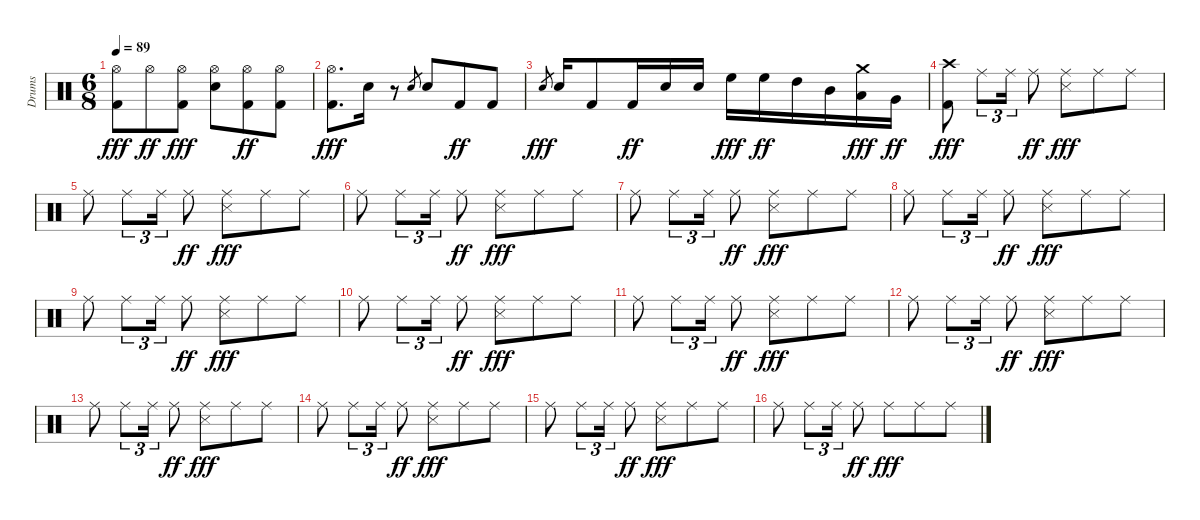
\track ("Drums" "Drums") {instrument percussion}
\staff {score}
\articulation defaults
\ts (6 8)
\tempo 89
\clef neutral
\ks c
("Hi-Hat (open)" "Kick (hit) 2").8{dy fff} "Hi-Hat (open)".8{dy ff} ("Hi-Hat (open)" "Kick (hit) 2").8{dy fff} ("Hi-Hat (open)" "Snare (hit) 2").8 ("Hi-Hat (open)" "Kick (hit) 2").8{dy ff} ("Hi-Hat (open)" "Kick (hit) 2").8 |
("Hi-Hat (open)" "Kick (hit) 2").8{d dy fff} "Snare (hit) 2".16 r.8 "Snare (hit) 2".8{gr} "Snare (hit) 2".8 "Kick (hit) 2".8{dy ff} "Kick (hit) 2".8 |
"Snare (hit) 2".8{gr dy fff} "Snare (hit) 2".16 "Kick (hit) 2".8 "Kick (hit) 2".16{dy ff} "Electric Snare (hit)".16 "Electric Snare (hit)".16 "High Floor Tom (hit)".16{dy fff} "High Floor Tom (hit)".16{dy ff} "High Tom (hit)".16 "Mid Tom (hit)".16 ("Low Tom (hit)" "Crash medium (hit)").16{dy fff} "Very Low Tom (hit)".16{dy ff} |
("Kick (hit) 2" "Crash high (hit)").8{dy fff} "Ride (middle)".8{tu (3 2)} "Ride (middle)".16{tu (3 2)} "Ride (middle)".8{dy ff} ("Ride (middle)" "Snare (side stick) 3").8{dy fff} "Ride (middle)".8 "Ride (middle)".8 |
"Ride (middle)".8 "Ride (middle)".8{tu (3 2)} "Ride (middle)".16{tu (3 2)} "Ride (middle)".8{dy ff} ("Ride (middle)" "Snare (side stick) 3").8{dy fff} "Ride (middle)".8 "Ride (middle)".8 |
"Ride (middle)".8 "Ride (middle)".8{tu (3 2)} "Ride (middle)".16{tu (3 2)} "Ride (middle)".8{dy ff} ("Ride (middle)" "Snare (side stick) 3").8{dy fff} "Ride (middle)".8 "Ride (middle)".8 |
"Ride (middle)".8 "Ride (middle)".8{tu (3 2)} "Ride (middle)".16{tu (3 2)} "Ride (middle)".8{dy ff} ("Ride (middle)" "Snare (side stick) 3").8{dy fff} "Ride (middle)".8 "Ride (middle)".8 |
"Ride (middle)".8 "Ride (middle)".8{tu (3 2)} "Ride (middle)".16{tu (3 2)} "Ride (middle)".8{dy ff} ("Ride (middle)" "Snare (side stick) 3").8{dy fff} "Ride (middle)".8 "Ride (middle)".8 |
"Ride (middle)".8 "Ride (middle)".8{tu (3 2)} "Ride (middle)".16{tu (3 2)} "Ride (middle)".8{dy ff} ("Ride (middle)" "Snare (side stick) 3").8{dy fff} "Ride (middle)".8 "Ride (middle)".8 |
"Ride (middle)".8 "Ride (middle)".8{tu (3 2)} "Ride (middle)".16{tu (3 2)} "Ride (middle)".8{dy ff} ("Ride (middle)" "Snare (side stick) 3").8{dy fff} "Ride (middle)".8 "Ride (middle)".8 |
"Ride (middle)".8 "Ride (middle)".8{tu (3 2)} "Ride (middle)".16{tu (3 2)} "Ride (middle)".8{dy ff} ("Ride (middle)" "Snare (side stick) 3").8{dy fff} "Ride (middle)".8 "Ride (middle)".8 |
"Ride (middle)".8 "Ride (middle)".8{tu (3 2)} "Ride (middle)".16{tu (3 2)} "Ride (middle)".8{dy ff} ("Ride (middle)" "Snare (side stick) 3").8{dy fff} "Ride (middle)".8 "Ride (middle)".8 |
"Ride (middle)".8 "Ride (middle)".8{tu (3 2)} "Ride (middle)".16{tu (3 2)} "Ride (middle)".8{dy ff} ("Ride (middle)" "Snare (side stick) 3").8{dy fff} "Ride (middle)".8 "Ride (middle)".8 |
"Ride (middle)".8 "Ride (middle)".8{tu (3 2)} "Ride (middle)".16{tu (3 2)} "Ride (middle)".8{dy ff} ("Ride (middle)" "Snare (side stick) 3").8{dy fff} "Ride (middle)".8 "Ride (middle)".8 |
"Ride (middle)".8 "Ride (middle)".8{tu (3 2)} "Ride (middle)".16{tu (3 2)} "Ride (middle)".8{dy ff} ("Ride (middle)" "Snare (side stick) 3").8{dy fff} "Ride (middle)".8 "Ride (middle)".8 |
"Ride (middle)".8 "Ride (middle)".8{tu (3 2)} "Ride (middle)".16{tu (3 2)} "Ride (middle)".8{dy ff} "Ride (middle)".8{dy fff} "Ride (middle)".8 "Ride (middle)".8
